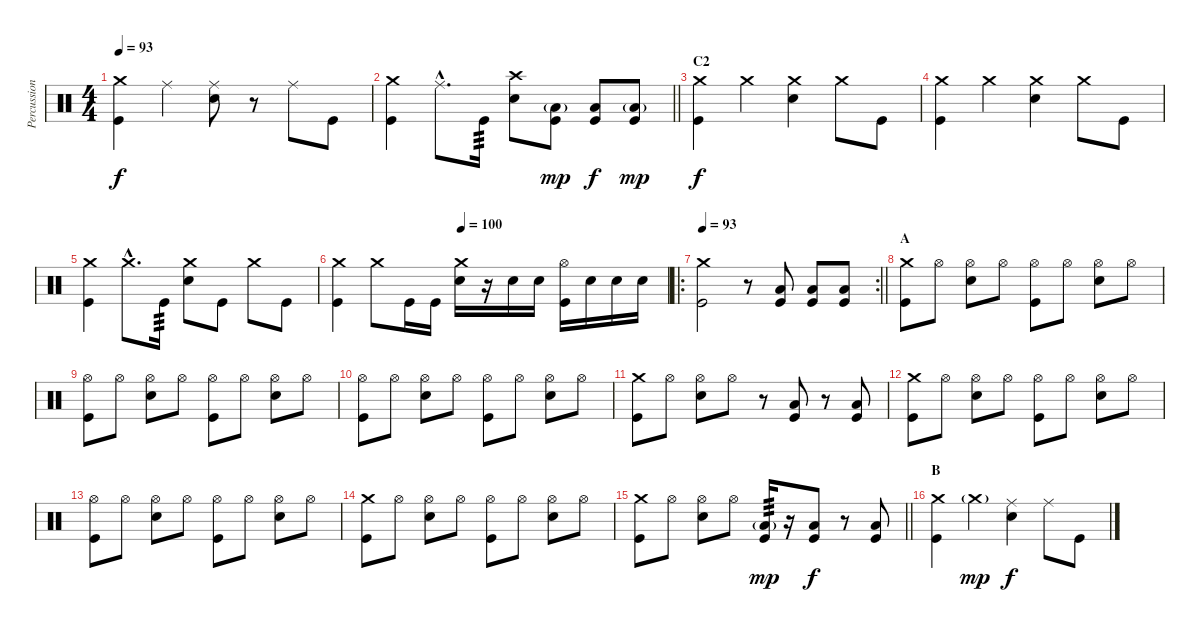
\track ("Percussion" "Percussion") {instrument percussion}
\staff {score}
\articulation defaults
\ts (4 4)
\tempo 93
\clef neutral
\ks c
("Kick (hit)" "Crash medium (hit)").4{dy f} "Ride (middle)".4 ("Snare (hit) 2" "Ride (middle)").8 r.8 "Ride (middle)".8 "Kick (hit)".8 |
\barLineRight lightlight
("Kick (hit)" "Crash medium (hit)").4 "Ride (middle)"{hac}.8{d} "Kick (hit)".16{tp 3} ("Snare (hit) 2" "Crash high (hit)").8 ("Kick (hit)" "Low Floor Tom (hit)"{g}).8{dy mp} ("Kick (hit)" "Low Floor Tom (hit)").8{dy f} ("Kick (hit)" "Low Floor Tom (hit)"{g}).8{dy mp} |
\section ("" "C2")
("Kick (hit)" "Crash medium (hit)").4{dy f} "Crash medium (hit)".4 ("Snare (hit) 2" "Crash medium (hit)").4 "Crash medium (hit)".8 "Kick (hit)".8 |
("Kick (hit)" "Crash medium (hit)").4 "Crash medium (hit)".4 ("Snare (hit) 2" "Crash medium (hit)").4 "Crash medium (hit)".8 "Kick (hit)".8 |
("Kick (hit)" "Crash medium (hit)").4 "Crash medium (hit)"{hac}.8{d} "Kick (hit)".16{tp 3} ("Snare (hit) 2" "Crash medium (hit)").8 "Kick (hit)".8 "Crash medium (hit)".8 "Kick (hit)".8 |
\tempo (100 0.375)
("Kick (hit)" "Crash medium (hit)").4 "Crash medium (hit)".8 "Kick (hit)".16 "Kick (hit)".16 ("Snare (hit) 2" "Crash medium (hit)").16 r.16 "Snare (hit) 2".16 "Snare (hit) 2".16 ("Kick (hit)" "Hi-Hat (open)").16 "Snare (hit) 2".16 "Snare (hit) 2".16 "Snare (hit) 2".16 |
\ro
\rc 2
\tempo 93
\barLineRight lightlight
("Kick (hit)" "Crash medium (hit)").2 r.8 ("Low Floor Tom (hit)" "Kick (hit)").8 ("Low Floor Tom (hit)" "Kick (hit)").8 ("Low Floor Tom (hit)" "Kick (hit)").8 |
\section ("" "A")
("Kick (hit)" "Crash medium (hit)").8 "Hi-Hat (open)".8 ("Snare (hit) 2" "Hi-Hat (open)").8 "Hi-Hat (open)".8 ("Kick (hit)" "Hi-Hat (open)").8 "Hi-Hat (open)".8 ("Snare (hit) 2" "Hi-Hat (open)").8 "Hi-Hat (open)".8 |
("Kick (hit)" "Hi-Hat (open)").8 "Hi-Hat (open)".8 ("Snare (hit) 2" "Hi-Hat (open)").8 "Hi-Hat (open)".8 ("Kick (hit)" "Hi-Hat (open)").8 "Hi-Hat (open)".8 ("Snare (hit) 2" "Hi-Hat (open)").8 "Hi-Hat (open)".8 |
("Kick (hit)" "Hi-Hat (open)").8 "Hi-Hat (open)".8 ("Snare (hit) 2" "Hi-Hat (open)").8 "Hi-Hat (open)".8 ("Kick (hit)" "Hi-Hat (open)").8 "Hi-Hat (open)".8 ("Snare (hit) 2" "Hi-Hat (open)").8 "Hi-Hat (open)".8 |
("Kick (hit)" "Crash medium (hit)").8 "Hi-Hat (open)".8 ("Snare (hit) 2" "Hi-Hat (open)").8 "Hi-Hat (open)".8 r.8 ("Kick (hit)" "Low Floor Tom (hit)").8 r.8 ("Kick (hit)" "Low Floor Tom (hit)").8 |
("Kick (hit)" "Crash medium (hit)").8 "Hi-Hat (open)".8 ("Snare (hit) 2" "Hi-Hat (open)").8 "Hi-Hat (open)".8 ("Kick (hit)" "Hi-Hat (open)").8 "Hi-Hat (open)".8 ("Snare (hit) 2" "Hi-Hat (open)").8 "Hi-Hat (open)".8 |
("Kick (hit)" "Hi-Hat (open)").8 "Hi-Hat (open)".8 ("Snare (hit) 2" "Hi-Hat (open)").8 "Hi-Hat (open)".8 ("Kick (hit)" "Hi-Hat (open)").8 "Hi-Hat (open)".8 ("Snare (hit) 2" "Hi-Hat (open)").8 "Hi-Hat (open)".8 |
("Kick (hit)" "Crash medium (hit)").8 "Hi-Hat (open)".8 ("Snare (hit) 2" "Hi-Hat (open)").8 "Hi-Hat (open)".8 ("Kick (hit)" "Hi-Hat (open)").8 "Hi-Hat (open)".8 ("Snare (hit) 2" "Hi-Hat (open)").8 "Hi-Hat (open)".8 |
\barLineRight lightlight
("Kick (hit)" "Crash medium (hit)").8 "Hi-Hat (open)".8 ("Snare (hit) 2" "Hi-Hat (open)").8 "Hi-Hat (open)".8 ("Kick (hit)" "Low Floor Tom (hit)"{g}).16{tp 3 dy mp} r.16 ("Kick (hit)" "Low Floor Tom (hit)").8{dy f} r.8 ("Kick (hit)" "Low Floor Tom (hit)").8 |
\section ("" "B")
("Kick (hit)" "Crash medium (hit)").4 "Crash medium (hit)"{g}.4{dy mp} ("Ride (middle)" "Snare (hit) 2").4{dy f} "Ride (middle)".8 "Kick (hit)".8
